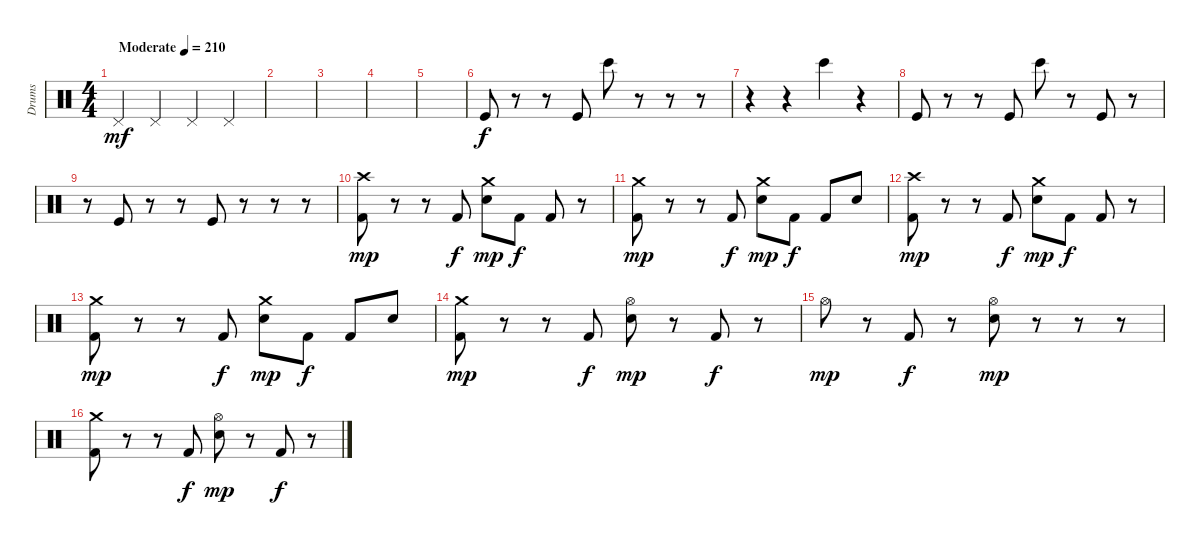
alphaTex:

\track ("Drums" "Drums") {instrument percussion}
\staff {score}
\articulation defaults
\ts (4 4)
\tempo (210 "Moderate")
\clef neutral
\ks c "Pedal Hi-Hat (hit)".4{dy mf} "Pedal Hi-Hat (hit)".4 "Pedal Hi-Hat (hit)".4 "Pedal Hi-Hat (hit)".4
|
|
|
|
|
"Kick (hit)".8{dy f} r.8 r.8 "Kick (hit)".8 "Bongo High (hit)".8 r.8 r.8 r.8 |
r.4 r.4 "Bongo High (hit)".4 r.4 |
"Kick (hit)".8 r.8 r.8 "Kick (hit)".8 "Bongo High (hit)".8 r.8 "Kick (hit)".8 r.8 |
r.8 "Kick (hit)".8 r.8 r.8 "Kick (hit)".8 r.8 r.8 r.8 |
("Kick (hit) 2" "Crash high (hit)").8{dy mp} r.8 r.8 "Kick (hit) 2".8{dy f} ("Snare (hit) 2" "Crash medium (hit)").8{dy mp} "Kick (hit) 2".8{dy f} "Kick (hit) 2".8 r.8 |
("Kick (hit) 2" "Crash medium (hit)").8{dy mp} r.8 r.8 "Kick (hit) 2".8{dy f} ("Snare (hit) 2" "Crash medium (hit)").8{dy mp} "Kick (hit) 2".8{dy f} "Kick (hit) 2".8 "Snare (hit) 2".8 |
("Kick (hit) 2" "Crash high (hit)").8{dy mp} r.8 r.8 "Kick (hit) 2".8{dy f} ("Snare (hit) 2" "Crash medium (hit)").8{dy mp} "Kick (hit) 2".8{dy f} "Kick (hit) 2".8 r.8 |
("Kick (hit) 2" "Crash medium (hit)").8{dy mp} r.8 r.8 "Kick (hit) 2".8{dy f} ("Snare (hit) 2" "Crash medium (hit)").8{dy mp} "Kick (hit) 2".8{dy f} "Kick (hit) 2".8 "Snare (hit) 2".8 |
("Kick (hit) 2" "Crash medium (hit)").8{dy mp} r.8 r.8 "Kick (hit) 2".8{dy f} ("Snare (hit) 2" "Hi-Hat (open)").8{dy mp} r.8 "Kick (hit) 2".8{dy f} r.8 |
"Hi-Hat (open)".8{dy mp} r.8 "Kick (hit) 2".8{dy f} r.8 ("Snare (hit) 2" "Hi-Hat (open)").8{dy mp} r.8 r.8 r.8 |
("Kick (hit) 2" "Crash medium (hit)").8 r.8 r.8 "Kick (hit) 2".8{dy f} ("Snare (hit) 2" "Hi-Hat (open)").8{dy mp} r.8 "Kick (hit) 2".8{dy f} r.8
